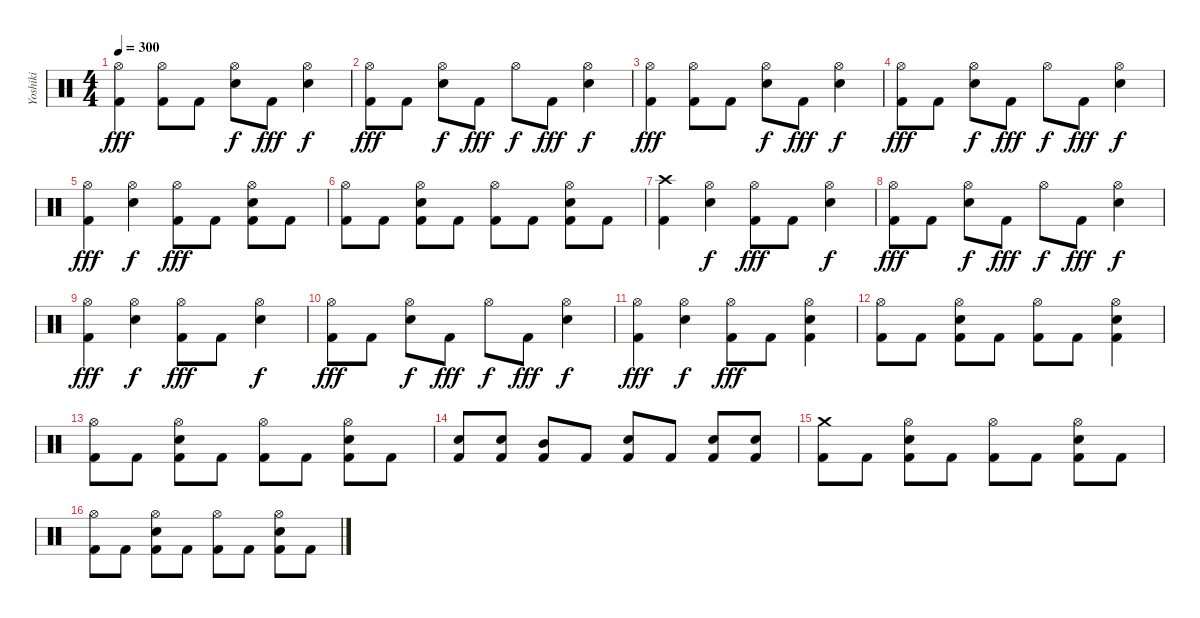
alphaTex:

\track ("Yoshiki" "Yoshiki") {instrument percussion}
\staff {score}
\articulation defaults
\ts (4 4)
\tempo 300
\clef neutral
\ks c
("Hi-Hat (open)" "Kick (hit) 2").4{dy fff} ("Hi-Hat (open)" "Kick (hit) 2").8 "Kick (hit) 2".8 ("Hi-Hat (open)" "Snare (hit) 2").8{dy f} "Kick (hit) 2".8{dy fff} ("Hi-Hat (open)" "Snare (hit) 2").4{dy f} |
("Hi-Hat (open)" "Kick (hit) 2").8{dy fff} "Kick (hit) 2".8 ("Hi-Hat (open)" "Snare (hit) 2").8{dy f} "Kick (hit) 2".8{dy fff} "Hi-Hat (open)".8{dy f} "Kick (hit) 2".8{dy fff} ("Hi-Hat (open)" "Snare (hit) 2").4{dy f} |
("Hi-Hat (open)" "Kick (hit) 2").4{dy fff} ("Hi-Hat (open)" "Kick (hit) 2").8 "Kick (hit) 2".8 ("Hi-Hat (open)" "Snare (hit) 2").8{dy f} "Kick (hit) 2".8{dy fff} ("Hi-Hat (open)" "Snare (hit) 2").4{dy f} |
("Hi-Hat (open)" "Kick (hit) 2").8{dy fff} "Kick (hit) 2".8 ("Hi-Hat (open)" "Snare (hit) 2").8{dy f} "Kick (hit) 2".8{dy fff} "Hi-Hat (open)".8{dy f} "Kick (hit) 2".8{dy fff} ("Hi-Hat (open)" "Snare (hit) 2").4{dy f} |
("Hi-Hat (open)" "Kick (hit) 2").4{dy fff} ("Hi-Hat (open)" "Snare (hit) 2").4{dy f} ("Hi-Hat (open)" "Kick (hit) 2").8{dy fff} "Kick (hit) 2".8 ("Hi-Hat (open)" "Snare (hit) 2" "Kick (hit) 2").8 "Kick (hit) 2".8 |
("Hi-Hat (open)" "Kick (hit) 2").8 "Kick (hit) 2".8 ("Hi-Hat (open)" "Snare (hit) 2" "Kick (hit) 2").8 "Kick (hit) 2".8 ("Hi-Hat (open)" "Kick (hit) 2").8 "Kick (hit) 2".8 ("Hi-Hat (open)" "Snare (hit) 2" "Kick (hit) 2").8 "Kick (hit) 2".8 |
("Crash high (hit)" "Kick (hit) 2").4 ("Hi-Hat (open)" "Snare (hit) 2").4{dy f} ("Hi-Hat (open)" "Kick (hit) 2").8{dy fff} "Kick (hit) 2".8 ("Hi-Hat (open)" "Snare (hit) 2").4{dy f} |
("Hi-Hat (open)" "Kick (hit) 2").8{dy fff} "Kick (hit) 2".8 ("Hi-Hat (open)" "Snare (hit) 2").8{dy f} "Kick (hit) 2".8{dy fff} "Hi-Hat (open)".8{dy f} "Kick (hit) 2".8{dy fff} ("Hi-Hat (open)" "Snare (hit) 2").4{dy f} |
("Hi-Hat (open)" "Kick (hit) 2").4{dy fff} ("Hi-Hat (open)" "Snare (hit) 2").4{dy f} ("Hi-Hat (open)" "Kick (hit) 2").8{dy fff} "Kick (hit) 2".8 ("Hi-Hat (open)" "Snare (hit) 2").4{dy f} |
("Hi-Hat (open)" "Kick (hit) 2").8{dy fff} "Kick (hit) 2".8 ("Hi-Hat (open)" "Snare (hit) 2").8{dy f} "Kick (hit) 2".8{dy fff} "Hi-Hat (open)".8{dy f} "Kick (hit) 2".8{dy fff} ("Hi-Hat (open)" "Snare (hit) 2").4{dy f} |
("Hi-Hat (open)" "Kick (hit) 2").4{dy fff} ("Hi-Hat (open)" "Snare (hit) 2").4{dy f} ("Hi-Hat (open)" "Kick (hit) 2").8{dy fff} "Kick (hit) 2".8 ("Hi-Hat (open)" "Snare (hit) 2" "Kick (hit) 2").4 |
("Hi-Hat (open)" "Kick (hit) 2").8 "Kick (hit) 2".8 ("Hi-Hat (open)" "Snare (hit) 2" "Kick (hit) 2").8 "Kick (hit) 2".8 ("Hi-Hat (open)" "Kick (hit) 2").8 "Kick (hit) 2".8 ("Hi-Hat (open)" "Snare (hit) 2" "Kick (hit) 2").4 |
("Hi-Hat (open)" "Kick (hit) 2").8 "Kick (hit) 2".8 ("Hi-Hat (open)" "Snare (hit) 2" "Kick (hit) 2").8 "Kick (hit) 2".8 ("Hi-Hat (open)" "Kick (hit) 2").8 "Kick (hit) 2".8 ("Hi-Hat (open)" "Snare (hit) 2" "Kick (hit) 2").8 "Kick (hit) 2".8 |
("Snare (hit) 2" "Kick (hit) 2").8 ("Snare (hit) 2" "Kick (hit) 2").8 ("Mid Tom (hit)" "Kick (hit) 2").8 "Kick (hit) 2".8 ("Snare (hit) 2" "Kick (hit) 2").8 "Kick (hit) 2".8 ("Snare (hit) 2" "Kick (hit) 2").8 ("Snare (hit) 2" "Kick (hit) 2").8 |
("Crash medium (hit)" "Kick (hit) 2").8 "Kick (hit) 2".8 ("Hi-Hat (open)" "Snare (hit) 2" "Kick (hit) 2").8 "Kick (hit) 2".8 ("Hi-Hat (open)" "Kick (hit) 2").8 "Kick (hit) 2".8 ("Hi-Hat (open)" "Snare (hit) 2" "Kick (hit) 2").8 "Kick (hit) 2".8 |
("Hi-Hat (open)" "Kick (hit) 2").8 "Kick (hit) 2".8 ("Hi-Hat (open)" "Snare (hit) 2" "Kick (hit) 2").8 "Kick (hit) 2".8 ("Hi-Hat (open)" "Kick (hit) 2").8 "Kick (hit) 2".8 ("Hi-Hat (open)" "Snare (hit) 2" "Kick (hit) 2").8 "Kick (hit) 2".8
